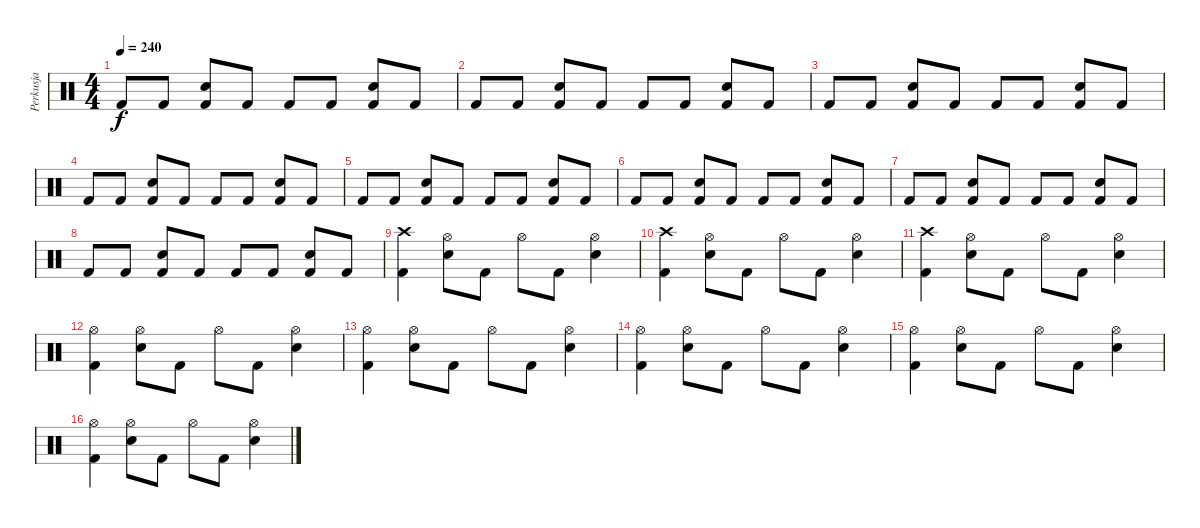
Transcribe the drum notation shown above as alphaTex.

\track ("Perkusja" "Perkusja") {instrument percussion}
\staff {score}
\articulation defaults
\ts (4 4)
\tempo 240
\clef neutral
\ks c "Kick (hit) 2".8{dy f} "Kick (hit) 2".8
("Electric Snare (hit)" "Kick (hit) 2").8 "Kick (hit) 2".8 "Kick (hit) 2".8 "Kick (hit) 2".8 ("Electric Snare (hit)" "Kick (hit) 2").8 "Kick (hit) 2".8 |
"Kick (hit) 2".8 "Kick (hit) 2".8 ("Electric Snare (hit)" "Kick (hit) 2").8 "Kick (hit) 2".8 "Kick (hit) 2".8 "Kick (hit) 2".8 ("Electric Snare (hit)" "Kick (hit) 2").8 "Kick (hit) 2".8 |
"Kick (hit) 2".8 "Kick (hit) 2".8 ("Electric Snare (hit)" "Kick (hit) 2").8 "Kick (hit) 2".8 "Kick (hit) 2".8 "Kick (hit) 2".8 ("Electric Snare (hit)" "Kick (hit) 2").8 "Kick (hit) 2".8 |
"Kick (hit) 2".8 "Kick (hit) 2".8 ("Electric Snare (hit)" "Kick (hit) 2").8 "Kick (hit) 2".8 "Kick (hit) 2".8 "Kick (hit) 2".8 ("Electric Snare (hit)" "Kick (hit) 2").8 "Kick (hit) 2".8 |
"Kick (hit) 2".8 "Kick (hit) 2".8 ("Electric Snare (hit)" "Kick (hit) 2").8 "Kick (hit) 2".8 "Kick (hit) 2".8 "Kick (hit) 2".8 ("Electric Snare (hit)" "Kick (hit) 2").8 "Kick (hit) 2".8 |
"Kick (hit) 2".8 "Kick (hit) 2".8 ("Electric Snare (hit)" "Kick (hit) 2").8 "Kick (hit) 2".8 "Kick (hit) 2".8 "Kick (hit) 2".8 ("Electric Snare (hit)" "Kick (hit) 2").8 "Kick (hit) 2".8 |
"Kick (hit) 2".8 "Kick (hit) 2".8 ("Electric Snare (hit)" "Kick (hit) 2").8 "Kick (hit) 2".8 "Kick (hit) 2".8 "Kick (hit) 2".8 ("Electric Snare (hit)" "Kick (hit) 2").8 "Kick (hit) 2".8 |
"Kick (hit) 2".8 "Kick (hit) 2".8 ("Electric Snare (hit)" "Kick (hit) 2").8 "Kick (hit) 2".8 "Kick (hit) 2".8 "Kick (hit) 2".8 ("Electric Snare (hit)" "Kick (hit) 2").8 "Kick (hit) 2".8 |
("Crash high (hit)" "Kick (hit) 2").4 ("Hi-Hat (open)" "Electric Snare (hit)").8 "Kick (hit) 2".8 "Hi-Hat (open)".8 "Kick (hit) 2".8 ("Hi-Hat (open)" "Electric Snare (hit)").4 |
("Crash high (hit)" "Kick (hit) 2").4 ("Hi-Hat (open)" "Electric Snare (hit)").8 "Kick (hit) 2".8 "Hi-Hat (open)".8 "Kick (hit) 2".8 ("Hi-Hat (open)" "Electric Snare (hit)").4 |
("Crash high (hit)" "Kick (hit) 2").4 ("Hi-Hat (open)" "Electric Snare (hit)").8 "Kick (hit) 2".8 "Hi-Hat (open)".8 "Kick (hit) 2".8 ("Hi-Hat (open)" "Electric Snare (hit)").4 |
("Hi-Hat (open)" "Kick (hit) 2").4 ("Hi-Hat (open)" "Electric Snare (hit)").8 "Kick (hit) 2".8 "Hi-Hat (open)".8 "Kick (hit) 2".8 ("Hi-Hat (open)" "Electric Snare (hit)").4 |
("Hi-Hat (open)" "Kick (hit) 2").4 ("Hi-Hat (open)" "Electric Snare (hit)").8 "Kick (hit) 2".8 "Hi-Hat (open)".8 "Kick (hit) 2".8 ("Hi-Hat (open)" "Electric Snare (hit)").4 |
("Hi-Hat (open)" "Kick (hit) 2").4 ("Hi-Hat (open)" "Electric Snare (hit)").8 "Kick (hit) 2".8 "Hi-Hat (open)".8 "Kick (hit) 2".8 ("Hi-Hat (open)" "Electric Snare (hit)").4 |
("Hi-Hat (open)" "Kick (hit) 2").4 ("Hi-Hat (open)" "Electric Snare (hit)").8 "Kick (hit) 2".8 "Hi-Hat (open)".8 "Kick (hit) 2".8 ("Hi-Hat (open)" "Electric Snare (hit)").4 |
("Hi-Hat (open)" "Kick (hit) 2").4 ("Hi-Hat (open)" "Electric Snare (hit)").8 "Kick (hit) 2".8 "Hi-Hat (open)".8 "Kick (hit) 2".8 ("Hi-Hat (open)" "Electric Snare (hit)").4
